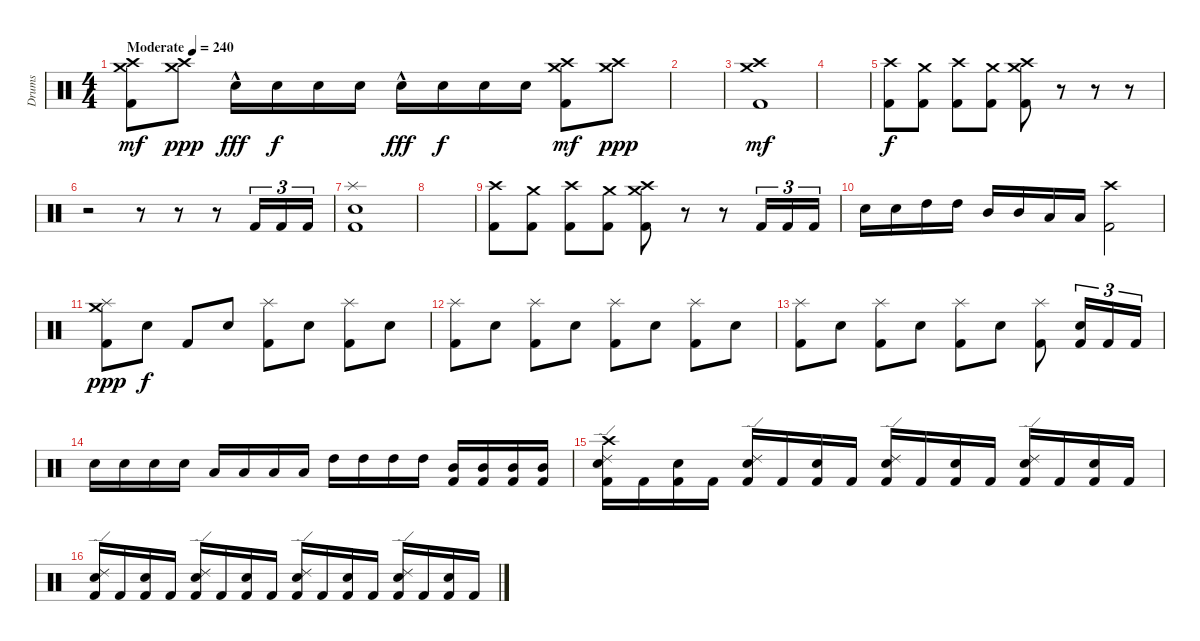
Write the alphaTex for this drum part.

\track ("Drums" "Drums") {instrument percussion}
\staff {score}
\articulation defaults
\ts (4 4)
\tempo (240 "Moderate")
\clef neutral
\ks c
("Crash high (hit)" "Crash medium (hit)" "Kick (hit) 2").8{dy mf} ("Crash high (hit)" "Crash medium (hit)").8{dy ppp} "Electric Snare (hit)"{hac}.16{dy fff} "Electric Snare (hit)".16{dy f} "Electric Snare (hit)".16 "Electric Snare (hit)".16 "Electric Snare (hit)"{hac}.16{dy fff} "Electric Snare (hit)".16{dy f} "Electric Snare (hit)".16 "Electric Snare (hit)".16 ("Crash high (hit)" "Crash medium (hit)" "Kick (hit) 2").8{dy mf} ("Crash high (hit)" "Crash medium (hit)").8{dy ppp} |
|
("Crash medium (hit)" "Crash high (hit)" "Kick (hit) 2").1{dy mf} |
|
("Crash high (hit)" "Kick (hit) 2").8{dy f} ("Crash medium (hit)" "Kick (hit) 2").8 ("Crash high (hit)" "Kick (hit) 2").8 ("Crash medium (hit)" "Kick (hit) 2").8 ("Crash medium (hit)" "Crash high (hit)" "Kick (hit) 2").8 r.8 r.8 r.8 |
r.2 r.8 r.8 r.8 "Kick (hit) 2".16{tu (3 2)} "Kick (hit) 2".16{tu (3 2)} "Kick (hit) 2".16{tu (3 2)} |
("Splash (hit)" "Electric Snare (hit)" "Kick (hit) 2").1 |
|
("Crash high (hit)" "Kick (hit) 2").8 ("Crash medium (hit)" "Kick (hit) 2").8 ("Crash high (hit)" "Kick (hit) 2").8 ("Crash medium (hit)" "Kick (hit) 2").8 ("Crash medium (hit)" "Crash high (hit)" "Kick (hit) 2").8 r.8 r.8 "Kick (hit) 2".16{tu (3 2)} "Kick (hit) 2".16{tu (3 2)} "Kick (hit) 2".16{tu (3 2)} |
"Electric Snare (hit)".16 "Electric Snare (hit)".16 "High Tom (hit)".16 "High Tom (hit)".16 "Mid Tom (hit)".16 "Mid Tom (hit)".16 "Low Tom (hit)".16 "Low Tom (hit)".16 ("Crash high (hit)" "Kick (hit) 2").2 |
("Crash medium (hit)" "Splash (hit)" "Kick (hit) 2").8{dy ppp} "Electric Snare (hit)".8{dy f} "Kick (hit) 2".8 "Electric Snare (hit)".8 ("Splash (hit)" "Kick (hit) 2").8 "Electric Snare (hit)".8 ("Splash (hit)" "Kick (hit) 2").8 "Electric Snare (hit)".8 |
("Splash (hit)" "Kick (hit) 2").8 "Electric Snare (hit)".8 ("Splash (hit)" "Kick (hit) 2").8 "Electric Snare (hit)".8 ("Splash (hit)" "Kick (hit) 2").8 "Electric Snare (hit)".8 ("Splash (hit)" "Kick (hit) 2").8 "Electric Snare (hit)".8 |
("Splash (hit)" "Kick (hit) 2").8 "Electric Snare (hit)".8 ("Splash (hit)" "Kick (hit) 2").8 "Electric Snare (hit)".8 ("Splash (hit)" "Kick (hit) 2").8 "Electric Snare (hit)".8 ("Splash (hit)" "Kick (hit) 2").8 ("Electric Snare (hit)" "Kick (hit) 2").16{tu (3 2)} "Kick (hit) 2".16{tu (3 2)} "Kick (hit) 2".16{tu (3 2)} |
"Electric Snare (hit)".16 "Electric Snare (hit)".16 "Electric Snare (hit)".16 "Electric Snare (hit)".16 "Low Tom (hit)".16 "Low Tom (hit)".16 "Low Tom (hit)".16 "Low Tom (hit)".16 "High Tom (hit)".16 "High Tom (hit)".16 "High Tom (hit)".16 "High Tom (hit)".16 ("Mid Tom (hit)" "Kick (hit) 2").16 ("Mid Tom (hit)" "Kick (hit) 2").16 ("Mid Tom (hit)" "Kick (hit) 2").16 ("Mid Tom (hit)" "Kick (hit) 2").16 |
("Crash high (hit)" "Ride (edge) 2" "Electric Snare (hit)" "Kick (hit) 2").16 "Kick (hit) 2".16 ("Electric Snare (hit)" "Kick (hit) 2").16 "Kick (hit) 2".16 ("Ride (edge) 2" "Electric Snare (hit)" "Kick (hit) 2").16 "Kick (hit) 2".16 ("Electric Snare (hit)" "Kick (hit) 2").16 "Kick (hit) 2".16 ("Ride (edge) 2" "Electric Snare (hit)" "Kick (hit) 2").16 "Kick (hit) 2".16 ("Electric Snare (hit)" "Kick (hit) 2").16 "Kick (hit) 2".16 ("Ride (edge) 2" "Electric Snare (hit)" "Kick (hit) 2").16 "Kick (hit) 2".16 ("Electric Snare (hit)" "Kick (hit) 2").16 "Kick (hit) 2".16 |
("Ride (edge) 2" "Electric Snare (hit)" "Kick (hit) 2").16 "Kick (hit) 2".16 ("Electric Snare (hit)" "Kick (hit) 2").16 "Kick (hit) 2".16 ("Ride (edge) 2" "Electric Snare (hit)" "Kick (hit) 2").16 "Kick (hit) 2".16 ("Electric Snare (hit)" "Kick (hit) 2").16 "Kick (hit) 2".16 ("Ride (edge) 2" "Electric Snare (hit)" "Kick (hit) 2").16 "Kick (hit) 2".16 ("Electric Snare (hit)" "Kick (hit) 2").16 "Kick (hit) 2".16 ("Ride (edge) 2" "Electric Snare (hit)" "Kick (hit) 2").16 "Kick (hit) 2".16 ("Electric Snare (hit)" "Kick (hit) 2").16 "Kick (hit) 2".16
